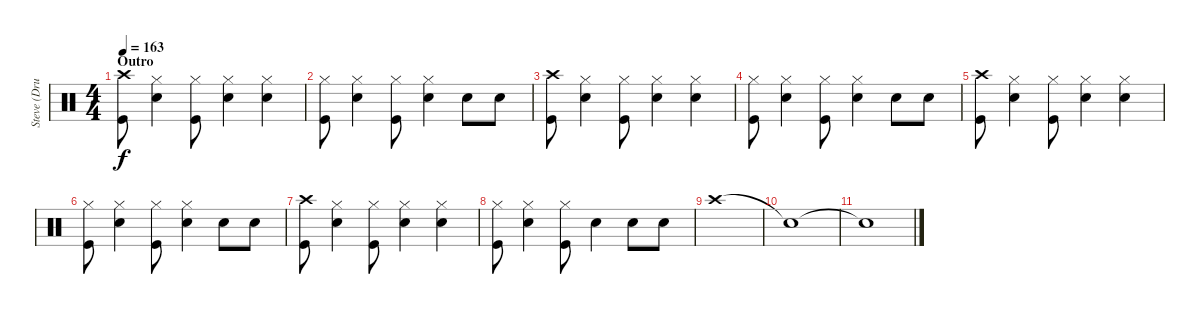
\track ("Steve (Drums)" "Steve (Dru") {instrument percussion}
\staff {score}
\articulation defaults
\ts (4 4)
\section ("" "Outro")
\tempo 163
\clef neutral
\ks c
("Crash high (hit)" "Kick (hit)").8{dy f} ("Hi-Hat (closed)" "Electric Snare (hit)").4 ("Hi-Hat (closed)" "Kick (hit)").8 ("Hi-Hat (closed)" "Electric Snare (hit)").4 ("Hi-Hat (closed)" "Electric Snare (hit)").4 |
("Hi-Hat (closed)" "Kick (hit)").8 ("Hi-Hat (closed)" "Electric Snare (hit)").4 ("Hi-Hat (closed)" "Kick (hit)").8 ("Hi-Hat (closed)" "Electric Snare (hit)").4 "Electric Snare (hit)".8 "Electric Snare (hit)".8 |
("Crash high (hit)" "Kick (hit)").8 ("Hi-Hat (closed)" "Electric Snare (hit)").4 ("Hi-Hat (closed)" "Kick (hit)").8 ("Hi-Hat (closed)" "Electric Snare (hit)").4 ("Hi-Hat (closed)" "Electric Snare (hit)").4 |
("Hi-Hat (closed)" "Kick (hit)").8 ("Hi-Hat (closed)" "Electric Snare (hit)").4 ("Hi-Hat (closed)" "Kick (hit)").8 ("Hi-Hat (closed)" "Electric Snare (hit)").4 "Electric Snare (hit)".8 "Electric Snare (hit)".8 |
("Crash high (hit)" "Kick (hit)").8 ("Hi-Hat (closed)" "Electric Snare (hit)").4 ("Hi-Hat (closed)" "Kick (hit)").8 ("Hi-Hat (closed)" "Electric Snare (hit)").4 ("Hi-Hat (closed)" "Electric Snare (hit)").4 |
("Hi-Hat (closed)" "Kick (hit)").8 ("Hi-Hat (closed)" "Electric Snare (hit)").4 ("Hi-Hat (closed)" "Kick (hit)").8 ("Hi-Hat (closed)" "Electric Snare (hit)").4 "Electric Snare (hit)".8 "Electric Snare (hit)".8 |
("Crash high (hit)" "Kick (hit)").8 ("Hi-Hat (closed)" "Electric Snare (hit)").4 ("Hi-Hat (closed)" "Kick (hit)").8 ("Hi-Hat (closed)" "Electric Snare (hit)").4 ("Hi-Hat (closed)" "Electric Snare (hit)").4 |
("Hi-Hat (closed)" "Kick (hit)").8 ("Hi-Hat (closed)" "Electric Snare (hit)").4 ("Hi-Hat (closed)" "Kick (hit)").8 "Electric Snare (hit)".4 "Electric Snare (hit)".8 "Electric Snare (hit)".8 |
"Crash high (hit)".1 |
"Snare (hit)"{t}.1 |
"Snare (hit)"{t}.1
